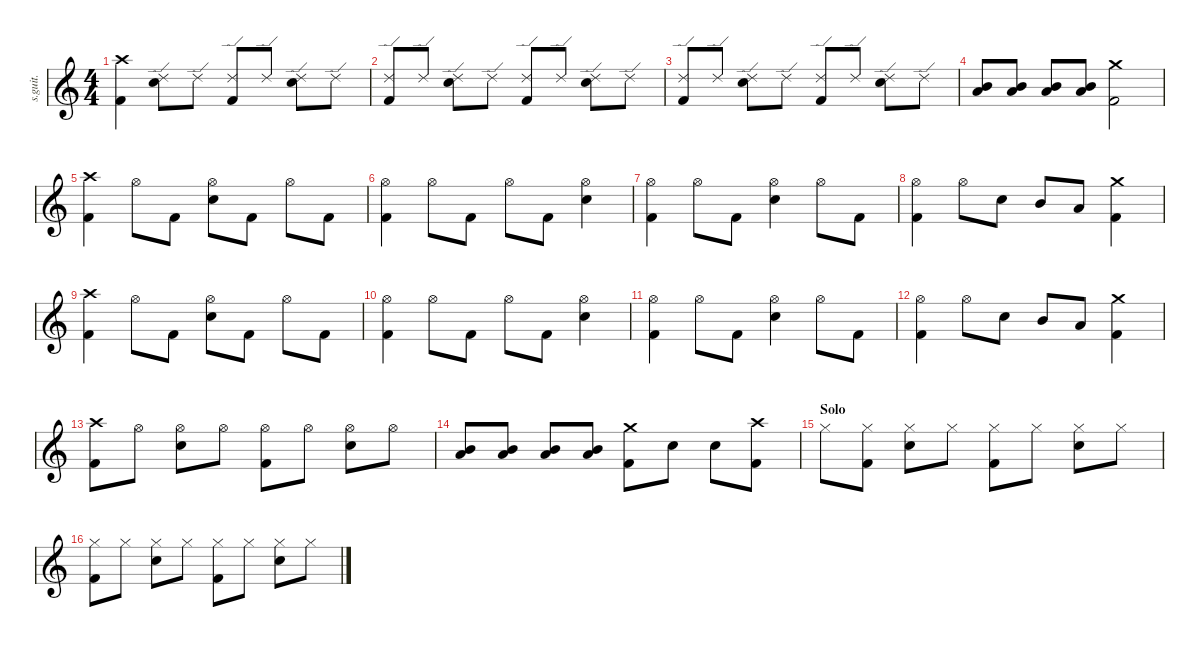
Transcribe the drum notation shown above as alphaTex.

\defaultSystemsLayout 4
\hideDynamics
\bracketExtendMode nobrackets
\track ("Nick Menza" "s.guit.") {instrument percussion}
\staff {score}
\articulation defaults
\ts (4 4)
\tempo (140 hide)
\clef g2
\ks c
("Crash high (hit)" "Kick (hit) 2").4{lyrics (0 "") lyrics (1 "") lyrics (2 "") lyrics (3 "") lyrics (4 "") dy f} ("Ride (edge) 2" "Snare (hit) 2").8{lyrics (0 "") lyrics (1 "") lyrics (2 "") lyrics (3 "") lyrics (4 "")} "Ride (edge) 2".8{lyrics (0 "") lyrics (1 "") lyrics (2 "") lyrics (3 "") lyrics (4 "")} ("Ride (edge) 2" "Kick (hit) 2").8{lyrics (0 "") lyrics (1 "") lyrics (2 "") lyrics (3 "") lyrics (4 "")} "Ride (edge) 2".8{lyrics (0 "") lyrics (1 "") lyrics (2 "") lyrics (3 "") lyrics (4 "")} ("Ride (edge) 2" "Snare (hit) 2").8{lyrics (0 "") lyrics (1 "") lyrics (2 "") lyrics (3 "") lyrics (4 "")} "Ride (edge) 2".8{lyrics (0 "") lyrics (1 "") lyrics (2 "") lyrics (3 "") lyrics (4 "")} |
("Ride (edge) 2" "Kick (hit) 2").8{lyrics (0 "") lyrics (1 "") lyrics (2 "") lyrics (3 "") lyrics (4 "")} "Ride (edge) 2".8{lyrics (0 "") lyrics (1 "") lyrics (2 "") lyrics (3 "") lyrics (4 "")} ("Ride (edge) 2" "Snare (hit) 2").8{lyrics (0 "") lyrics (1 "") lyrics (2 "") lyrics (3 "") lyrics (4 "")} "Ride (edge) 2".8{lyrics (0 "") lyrics (1 "") lyrics (2 "") lyrics (3 "") lyrics (4 "")} ("Ride (edge) 2" "Kick (hit) 2").8{lyrics (0 "") lyrics (1 "") lyrics (2 "") lyrics (3 "") lyrics (4 "")} "Ride (edge) 2".8{lyrics (0 "") lyrics (1 "") lyrics (2 "") lyrics (3 "") lyrics (4 "")} ("Ride (edge) 2" "Snare (hit) 2").8{lyrics (0 "") lyrics (1 "") lyrics (2 "") lyrics (3 "") lyrics (4 "")} "Ride (edge) 2".8{lyrics (0 "") lyrics (1 "") lyrics (2 "") lyrics (3 "") lyrics (4 "")} |
("Ride (edge) 2" "Kick (hit) 2").8{lyrics (0 "") lyrics (1 "") lyrics (2 "") lyrics (3 "") lyrics (4 "")} "Ride (edge) 2".8{lyrics (0 "") lyrics (1 "") lyrics (2 "") lyrics (3 "") lyrics (4 "")} ("Ride (edge) 2" "Snare (hit) 2").8{lyrics (0 "") lyrics (1 "") lyrics (2 "") lyrics (3 "") lyrics (4 "")} "Ride (edge) 2".8{lyrics (0 "") lyrics (1 "") lyrics (2 "") lyrics (3 "") lyrics (4 "")} ("Ride (edge) 2" "Kick (hit) 2").8{lyrics (0 "") lyrics (1 "") lyrics (2 "") lyrics (3 "") lyrics (4 "")} "Ride (edge) 2".8{lyrics (0 "") lyrics (1 "") lyrics (2 "") lyrics (3 "") lyrics (4 "")} ("Ride (edge) 2" "Snare (hit) 2").8{lyrics (0 "") lyrics (1 "") lyrics (2 "") lyrics (3 "") lyrics (4 "")} "Ride (edge) 2".8{lyrics (0 "") lyrics (1 "") lyrics (2 "") lyrics (3 "") lyrics (4 "")} |
("Mid Tom (hit)" "Low Tom (hit)").8{lyrics (0 "") lyrics (1 "") lyrics (2 "") lyrics (3 "") lyrics (4 "")} ("Mid Tom (hit)" "Low Tom (hit)").8{lyrics (0 "") lyrics (1 "") lyrics (2 "") lyrics (3 "") lyrics (4 "")} ("Mid Tom (hit)" "Low Tom (hit)").8{lyrics (0 "") lyrics (1 "") lyrics (2 "") lyrics (3 "") lyrics (4 "")} ("Mid Tom (hit)" "Low Tom (hit)").8{lyrics (0 "") lyrics (1 "") lyrics (2 "") lyrics (3 "") lyrics (4 "")} ("Crash medium (hit)" "Kick (hit) 2").2{lyrics (0 "") lyrics (1 "") lyrics (2 "") lyrics (3 "") lyrics (4 "")} |
("Crash high (hit)" "Kick (hit) 2").4{lyrics (0 "") lyrics (1 "") lyrics (2 "") lyrics (3 "") lyrics (4 "")} "Hi-Hat (open)".8{lyrics (0 "") lyrics (1 "") lyrics (2 "") lyrics (3 "") lyrics (4 "")} "Kick (hit) 2".8{lyrics (0 "") lyrics (1 "") lyrics (2 "") lyrics (3 "") lyrics (4 "") dy fff} ("Hi-Hat (open)" "Snare (hit) 2").8{lyrics (0 "") lyrics (1 "") lyrics (2 "") lyrics (3 "") lyrics (4 "") dy f} "Kick (hit) 2".8{lyrics (0 "") lyrics (1 "") lyrics (2 "") lyrics (3 "") lyrics (4 "") dy fff} "Hi-Hat (open)".8{lyrics (0 "") lyrics (1 "") lyrics (2 "") lyrics (3 "") lyrics (4 "") dy f} "Kick (hit) 2".8{lyrics (0 "") lyrics (1 "") lyrics (2 "") lyrics (3 "") lyrics (4 "") dy fff} |
("Hi-Hat (open)" "Kick (hit) 2").4{lyrics (0 "") lyrics (1 "") lyrics (2 "") lyrics (3 "") lyrics (4 "")} "Hi-Hat (open)".8{lyrics (0 "") lyrics (1 "") lyrics (2 "") lyrics (3 "") lyrics (4 "") dy f} "Kick (hit) 2".8{lyrics (0 "") lyrics (1 "") lyrics (2 "") lyrics (3 "") lyrics (4 "") dy fff} "Hi-Hat (open)".8{lyrics (0 "") lyrics (1 "") lyrics (2 "") lyrics (3 "") lyrics (4 "") dy f} "Kick (hit) 2".8{lyrics (0 "") lyrics (1 "") lyrics (2 "") lyrics (3 "") lyrics (4 "") dy fff} ("Hi-Hat (open)" "Snare (hit) 2").4{lyrics (0 "") lyrics (1 "") lyrics (2 "") lyrics (3 "") lyrics (4 "") dy f} |
("Hi-Hat (open)" "Kick (hit) 2").4{lyrics (0 "") lyrics (1 "") lyrics (2 "") lyrics (3 "") lyrics (4 "")} "Hi-Hat (open)".8{lyrics (0 "") lyrics (1 "") lyrics (2 "") lyrics (3 "") lyrics (4 "")} "Kick (hit) 2".8{lyrics (0 "") lyrics (1 "") lyrics (2 "") lyrics (3 "") lyrics (4 "") dy fff} ("Hi-Hat (open)" "Snare (hit) 2").4{lyrics (0 "") lyrics (1 "") lyrics (2 "") lyrics (3 "") lyrics (4 "") dy f} "Hi-Hat (open)".8{lyrics (0 "") lyrics (1 "") lyrics (2 "") lyrics (3 "") lyrics (4 "")} "Kick (hit) 2".8{lyrics (0 "") lyrics (1 "") lyrics (2 "") lyrics (3 "") lyrics (4 "") dy fff} |
("Hi-Hat (open)" "Kick (hit) 2").4{lyrics (0 "") lyrics (1 "") lyrics (2 "") lyrics (3 "") lyrics (4 "")} "Hi-Hat (open)".8{lyrics (0 "") lyrics (1 "") lyrics (2 "") lyrics (3 "") lyrics (4 "") dy f} "Snare (hit) 2".8{lyrics (0 "") lyrics (1 "") lyrics (2 "") lyrics (3 "") lyrics (4 "")} "Mid Tom (hit)".8{lyrics (0 "") lyrics (1 "") lyrics (2 "") lyrics (3 "") lyrics (4 "")} "Low Tom (hit)".8{lyrics (0 "") lyrics (1 "") lyrics (2 "") lyrics (3 "") lyrics (4 "")} ("Crash medium (hit)" "Kick (hit) 2").4{lyrics (0 "") lyrics (1 "") lyrics (2 "") lyrics (3 "") lyrics (4 "")} |
("Crash high (hit)" "Kick (hit) 2").4{lyrics (0 "") lyrics (1 "") lyrics (2 "") lyrics (3 "") lyrics (4 "")} "Hi-Hat (open)".8{lyrics (0 "") lyrics (1 "") lyrics (2 "") lyrics (3 "") lyrics (4 "")} "Kick (hit) 2".8{lyrics (0 "") lyrics (1 "") lyrics (2 "") lyrics (3 "") lyrics (4 "") dy fff} ("Hi-Hat (open)" "Snare (hit) 2").8{lyrics (0 "") lyrics (1 "") lyrics (2 "") lyrics (3 "") lyrics (4 "") dy f} "Kick (hit) 2".8{lyrics (0 "") lyrics (1 "") lyrics (2 "") lyrics (3 "") lyrics (4 "") dy fff} "Hi-Hat (open)".8{lyrics (0 "") lyrics (1 "") lyrics (2 "") lyrics (3 "") lyrics (4 "") dy f} "Kick (hit) 2".8{lyrics (0 "") lyrics (1 "") lyrics (2 "") lyrics (3 "") lyrics (4 "") dy fff} |
("Hi-Hat (open)" "Kick (hit) 2").4{lyrics (0 "") lyrics (1 "") lyrics (2 "") lyrics (3 "") lyrics (4 "")} "Hi-Hat (open)".8{lyrics (0 "") lyrics (1 "") lyrics (2 "") lyrics (3 "") lyrics (4 "") dy f} "Kick (hit) 2".8{lyrics (0 "") lyrics (1 "") lyrics (2 "") lyrics (3 "") lyrics (4 "") dy fff} "Hi-Hat (open)".8{lyrics (0 "") lyrics (1 "") lyrics (2 "") lyrics (3 "") lyrics (4 "") dy f} "Kick (hit) 2".8{lyrics (0 "") lyrics (1 "") lyrics (2 "") lyrics (3 "") lyrics (4 "") dy fff} ("Hi-Hat (open)" "Snare (hit) 2").4{lyrics (0 "") lyrics (1 "") lyrics (2 "") lyrics (3 "") lyrics (4 "") dy f} |
("Hi-Hat (open)" "Kick (hit) 2").4{lyrics (0 "") lyrics (1 "") lyrics (2 "") lyrics (3 "") lyrics (4 "")} "Hi-Hat (open)".8{lyrics (0 "") lyrics (1 "") lyrics (2 "") lyrics (3 "") lyrics (4 "")} "Kick (hit) 2".8{lyrics (0 "") lyrics (1 "") lyrics (2 "") lyrics (3 "") lyrics (4 "") dy fff} ("Hi-Hat (open)" "Snare (hit) 2").4{lyrics (0 "") lyrics (1 "") lyrics (2 "") lyrics (3 "") lyrics (4 "") dy f} "Hi-Hat (open)".8{lyrics (0 "") lyrics (1 "") lyrics (2 "") lyrics (3 "") lyrics (4 "")} "Kick (hit) 2".8{lyrics (0 "") lyrics (1 "") lyrics (2 "") lyrics (3 "") lyrics (4 "") dy fff} |
("Hi-Hat (open)" "Kick (hit) 2").4{lyrics (0 "") lyrics (1 "") lyrics (2 "") lyrics (3 "") lyrics (4 "")} "Hi-Hat (open)".8{lyrics (0 "") lyrics (1 "") lyrics (2 "") lyrics (3 "") lyrics (4 "") dy f} "Snare (hit) 2".8{lyrics (0 "") lyrics (1 "") lyrics (2 "") lyrics (3 "") lyrics (4 "")} "Mid Tom (hit)".8{lyrics (0 "") lyrics (1 "") lyrics (2 "") lyrics (3 "") lyrics (4 "")} "Low Tom (hit)".8{lyrics (0 "") lyrics (1 "") lyrics (2 "") lyrics (3 "") lyrics (4 "")} ("Crash medium (hit)" "Kick (hit) 2").4{lyrics (0 "") lyrics (1 "") lyrics (2 "") lyrics (3 "") lyrics (4 "")} |
("Crash high (hit)" "Kick (hit) 2").8{lyrics (0 "") lyrics (1 "") lyrics (2 "") lyrics (3 "") lyrics (4 "")} "Hi-Hat (open)".8{lyrics (0 "") lyrics (1 "") lyrics (2 "") lyrics (3 "") lyrics (4 "")} ("Hi-Hat (open)" "Snare (hit) 2").8{lyrics (0 "") lyrics (1 "") lyrics (2 "") lyrics (3 "") lyrics (4 "")} "Hi-Hat (open)".8{lyrics (0 "") lyrics (1 "") lyrics (2 "") lyrics (3 "") lyrics (4 "")} ("Hi-Hat (open)" "Kick (hit) 2").8{lyrics (0 "") lyrics (1 "") lyrics (2 "") lyrics (3 "") lyrics (4 "")} "Hi-Hat (open)".8{lyrics (0 "") lyrics (1 "") lyrics (2 "") lyrics (3 "") lyrics (4 "")} ("Hi-Hat (open)" "Snare (hit) 2").8{lyrics (0 "") lyrics (1 "") lyrics (2 "") lyrics (3 "") lyrics (4 "")} "Hi-Hat (open)".8{lyrics (0 "") lyrics (1 "") lyrics (2 "") lyrics (3 "") lyrics (4 "")} |
("Mid Tom (hit)" "Low Tom (hit)").8{lyrics (0 "") lyrics (1 "") lyrics (2 "") lyrics (3 "") lyrics (4 "")} ("Mid Tom (hit)" "Low Tom (hit)").8{lyrics (0 "") lyrics (1 "") lyrics (2 "") lyrics (3 "") lyrics (4 "")} ("Mid Tom (hit)" "Low Tom (hit)").8{lyrics (0 "") lyrics (1 "") lyrics (2 "") lyrics (3 "") lyrics (4 "")} ("Mid Tom (hit)" "Low Tom (hit)").8{lyrics (0 "") lyrics (1 "") lyrics (2 "") lyrics (3 "") lyrics (4 "")} ("Crash medium (hit)" "Kick (hit) 2").8{lyrics (0 "") lyrics (1 "") lyrics (2 "") lyrics (3 "") lyrics (4 "")} "Snare (hit) 2".8{lyrics (0 "") lyrics (1 "") lyrics (2 "") lyrics (3 "") lyrics (4 "")} "Snare (hit) 2".8{lyrics (0 "") lyrics (1 "") lyrics (2 "") lyrics (3 "") lyrics (4 "")} ("Crash high (hit)" "Kick (hit) 2").8{lyrics (0 "") lyrics (1 "") lyrics (2 "") lyrics (3 "") lyrics (4 "")} |
\section ("" "Solo")
"Hi-Hat (closed)".8{lyrics (0 "") lyrics (1 "") lyrics (2 "") lyrics (3 "") lyrics (4 "")} ("Hi-Hat (closed)" "Kick (hit) 2").8{lyrics (0 "") lyrics (1 "") lyrics (2 "") lyrics (3 "") lyrics (4 "")} ("Hi-Hat (closed)" "Snare (hit) 2").8{lyrics (0 "") lyrics (1 "") lyrics (2 "") lyrics (3 "") lyrics (4 "")} "Hi-Hat (closed)".8{lyrics (0 "") lyrics (1 "") lyrics (2 "") lyrics (3 "") lyrics (4 "")} ("Hi-Hat (closed)" "Kick (hit) 2").8{lyrics (0 "") lyrics (1 "") lyrics (2 "") lyrics (3 "") lyrics (4 "")} "Hi-Hat (closed)".8{lyrics (0 "") lyrics (1 "") lyrics (2 "") lyrics (3 "") lyrics (4 "")} ("Hi-Hat (closed)" "Snare (hit) 2").8{lyrics (0 "") lyrics (1 "") lyrics (2 "") lyrics (3 "") lyrics (4 "")} "Hi-Hat (closed)".8{lyrics (0 "") lyrics (1 "") lyrics (2 "") lyrics (3 "") lyrics (4 "")} |
("Hi-Hat (closed)" "Kick (hit) 2").8{lyrics (0 "") lyrics (1 "") lyrics (2 "") lyrics (3 "") lyrics (4 "")} "Hi-Hat (closed)".8{lyrics (0 "") lyrics (1 "") lyrics (2 "") lyrics (3 "") lyrics (4 "")} ("Hi-Hat (closed)" "Snare (hit) 2").8{lyrics (0 "") lyrics (1 "") lyrics (2 "") lyrics (3 "") lyrics (4 "")} "Hi-Hat (closed)".8{lyrics (0 "") lyrics (1 "") lyrics (2 "") lyrics (3 "") lyrics (4 "")} ("Hi-Hat (closed)" "Kick (hit) 2").8{lyrics (0 "") lyrics (1 "") lyrics (2 "") lyrics (3 "") lyrics (4 "")} "Hi-Hat (closed)".8{lyrics (0 "") lyrics (1 "") lyrics (2 "") lyrics (3 "") lyrics (4 "")} ("Hi-Hat (closed)" "Snare (hit) 2").8{lyrics (0 "") lyrics (1 "") lyrics (2 "") lyrics (3 "") lyrics (4 "")} "Hi-Hat (closed)".8{lyrics (0 "") lyrics (1 "") lyrics (2 "") lyrics (3 "") lyrics (4 "")}
